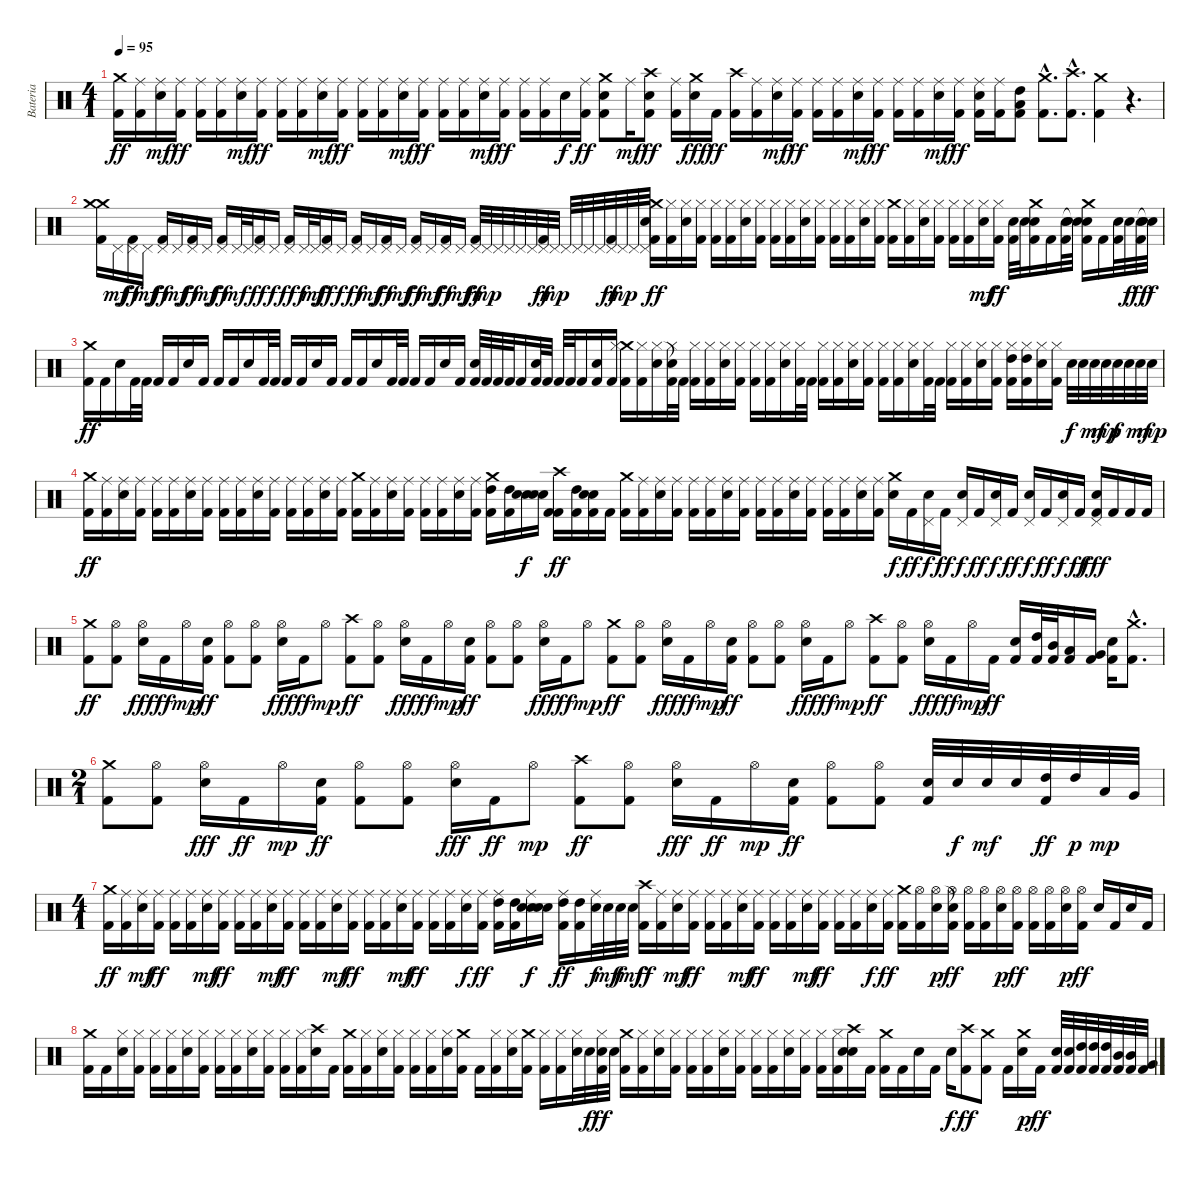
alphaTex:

\track ("Bateria" "Bateria") {instrument percussion}
\staff {score}
\articulation defaults
\ts (4 1)
\tempo 95
\clef neutral
\ks c
("Crash medium (hit)" "Kick (hit) 2").16{dy ff} ("Ride (middle)" "Kick (hit) 2").16 ("Ride (middle)" "Electric Snare (hit)").16{dy mf} ("Ride (middle)" "Kick (hit) 2").16{dy ff} ("Ride (middle)" "Kick (hit) 2").16 ("Ride (middle)" "Kick (hit) 2").16 ("Ride (middle)" "Electric Snare (hit)").16{dy mf} ("Ride (middle)" "Kick (hit) 2").16{dy ff} ("Ride (middle)" "Kick (hit) 2").16 ("Ride (middle)" "Kick (hit) 2").16 ("Ride (middle)" "Electric Snare (hit)").16{dy mf} ("Ride (middle)" "Kick (hit) 2").16{dy ff} ("Ride (middle)" "Kick (hit) 2").16 ("Ride (middle)" "Kick (hit) 2").16 ("Ride (middle)" "Electric Snare (hit)").16{dy mf} ("Ride (middle)" "Kick (hit) 2").16{dy ff} ("Ride (middle)" "Kick (hit) 2").16 ("Ride (middle)" "Kick (hit) 2").16 ("Ride (middle)" "Electric Snare (hit)").16{dy mf} ("Ride (middle)" "Kick (hit) 2").16{dy ff} ("Ride (middle)" "Kick (hit) 2").16 ("Ride (middle)" "Kick (hit) 2").16 "Electric Snare (hit)".16{dy f} ("Ride (middle)" "Kick (hit) 2").16{dy ff} ("Crash medium (hit)" "Electric Snare (hit)" "Kick (hit) 2").8 "Ride (middle)".16{dy mf} ("Crash high (hit)" "Electric Snare (hit)" "Kick (hit) 2").8{dy ff} ("Ride (middle)" "Kick (hit) 2").16 ("Crash medium (hit)" "Electric Snare (hit)").16{dy fff} "Kick (hit) 2".16{dy ff} ("Crash high (hit)" "Kick (hit) 2").16 ("Ride (middle)" "Kick (hit) 2").16 ("Ride (middle)" "Electric Snare (hit)").16{dy mf} ("Ride (middle)" "Kick (hit) 2").16{dy ff} ("Ride (middle)" "Kick (hit) 2").16 ("Ride (middle)" "Kick (hit) 2").16 ("Ride (middle)" "Electric Snare (hit)").16{dy mf} ("Ride (middle)" "Kick (hit) 2").16{dy ff} ("Ride (middle)" "Kick (hit) 2").16 ("Ride (middle)" "Kick (hit) 2").16 ("Ride (middle)" "Electric Snare (hit)").16{dy mf} ("Ride (middle)" "Kick (hit) 2").16{dy ff} ("Ride (middle)" "Electric Snare (hit)" "Kick (hit) 2").16 ("Ride (middle)" "Kick (hit) 2").16 ("Low Tom (hit)" "High Tom (hit)" "Kick (hit) 2").8 ("Crash medium (hit)"{hac} "Kick (hit) 2"{hac}).8{d} ("Crash high (hit)"{hac} "Kick (hit) 2"{hac}).8{d} ("Crash medium (hit)" "Kick (hit) 2").4 r.4{d} |
("Crash medium (hit)" "Crash medium (hit)" "Kick (hit) 2").16 "Pedal Hi-Hat (hit)".16{dy mf} ("Pedal Hi-Hat (hit)" "Kick (hit) 2").16{dy ff} "Pedal Hi-Hat (hit)".16{dy mf} ("Pedal Hi-Hat (hit)" "Kick (hit) 2").16{dy ff} "Pedal Hi-Hat (hit)".16{dy mf} ("Pedal Hi-Hat (hit)" "Kick (hit) 2").16{dy ff} "Pedal Hi-Hat (hit)".16{dy mf} ("Pedal Hi-Hat (hit)" "Kick (hit) 2").16{dy ff} "Pedal Hi-Hat (hit)".32{dy mf} "Pedal Hi-Hat (hit)".32 ("Pedal Hi-Hat (hit)" "Kick (hit) 2").16{dy ff} "Pedal Hi-Hat (hit)".16{dy f} ("Pedal Hi-Hat (hit)" "Kick (hit) 2").16{dy ff} "Pedal Hi-Hat (hit)".32{dy f} "Pedal Hi-Hat (hit)".32{dy mf} ("Pedal Hi-Hat (hit)" "Kick (hit) 2").16{dy ff} "Pedal Hi-Hat (hit)".16{dy f} ("Pedal Hi-Hat (hit)" "Kick (hit) 2").16{dy ff} "Pedal Hi-Hat (hit)".16{dy mf} ("Pedal Hi-Hat (hit)" "Kick (hit) 2").16{dy ff} "Pedal Hi-Hat (hit)".16{dy mf} ("Pedal Hi-Hat (hit)" "Kick (hit) 2").16{dy ff} "Pedal Hi-Hat (hit)".16{dy mf} ("Pedal Hi-Hat (hit)" "Kick (hit) 2").16{dy ff} "Pedal Hi-Hat (hit)".16{dy mf} ("Pedal Hi-Hat (hit)" "Kick (hit) 2").32{dy ff} "Pedal Hi-Hat (hit)".32{dy mp} "Pedal Hi-Hat (hit)".32 "Pedal Hi-Hat (hit)".32 "Pedal Hi-Hat (hit)".32 "Pedal Hi-Hat (hit)".32 ("Pedal Hi-Hat (hit)" "Kick (hit) 2").32{dy ff} "Pedal Hi-Hat (hit)".32{dy mp} "Pedal Hi-Hat (hit)".32 "Pedal Hi-Hat (hit)".32 "Pedal Hi-Hat (hit)".32 "Pedal Hi-Hat (hit)".32 ("Pedal Hi-Hat (hit)" "Kick (hit) 2").32{dy ff} "Pedal Hi-Hat (hit)".32{dy mp} "Pedal Hi-Hat (hit)".32 ("Pedal Hi-Hat (hit)" "Electric Snare (hit)").32 ("Crash medium (hit)" "Kick (hit) 2").16{dy ff} ("Hi-Hat (closed)" "Kick (hit) 2").16 ("Hi-Hat (closed)" "Electric Snare (hit)").16 ("Hi-Hat (closed)" "Kick (hit) 2").16 ("Hi-Hat (closed)" "Kick (hit) 2").16 ("Hi-Hat (closed)" "Kick (hit) 2").16 ("Hi-Hat (closed)" "Electric Snare (hit)").16 ("Hi-Hat (closed)" "Kick (hit) 2").16 ("Hi-Hat (closed)" "Kick (hit) 2").16 ("Hi-Hat (closed)" "Kick (hit) 2").16 ("Hi-Hat (closed)" "Electric Snare (hit)").16 ("Hi-Hat (closed)" "Kick (hit) 2").16 ("Hi-Hat (closed)" "Kick (hit) 2").16 ("Hi-Hat (closed)" "Kick (hit) 2").16 ("Hi-Hat (closed)" "Electric Snare (hit)").16 ("Hi-Hat (closed)" "Kick (hit) 2").16 ("Crash medium (hit)" "Kick (hit) 2").16 ("Hi-Hat (closed)" "Kick (hit) 2").16 ("Hi-Hat (closed)" "Electric Snare (hit)").16 ("Hi-Hat (closed)" "Kick (hit) 2").16 ("Hi-Hat (closed)" "Kick (hit) 2").16 ("Hi-Hat (closed)" "Kick (hit) 2").16 ("Hi-Hat (closed)" "Electric Snare (hit)").16{dy mf} ("Hi-Hat (closed)" "Kick (hit) 2").16{dy ff} ("Electric Snare (hit)" "Kick (hit) 2").32 "Electric Snare (hit)".32 ("Crash medium (hit)" "Electric Snare (hit)" "Kick (hit) 2").16 "Kick (hit) 2".16 ("Electric Snare (hit)" "Kick (hit) 2").32 ("Snare (hit)"{t} "Electric Snare (hit)").32 ("Crash medium (hit)" "Electric Snare (hit)" "Kick (hit) 2").16 "Kick (hit) 2".16 ("Electric Snare (hit)" "Kick (hit) 2").32 "Electric Snare (hit)".32{dy f} ("Electric Snare (hit)" "Kick (hit) 2").32{dy ff} ("Snare (hit)"{t} "Electric Snare (hit)").32{dy f} |
("Crash medium (hit)" "Kick (hit) 2").16{dy ff} "Kick (hit) 2".16 "Electric Snare (hit)".16 "Kick (hit) 2".32 "Kick (hit) 2".32 "Kick (hit) 2".16 "Kick (hit) 2".16 "Electric Snare (hit)".16 "Kick (hit) 2".16 "Kick (hit) 2".16 "Kick (hit) 2".16 "Electric Snare (hit)".16 "Kick (hit) 2".32 "Kick (hit) 2".32 "Kick (hit) 2".16 "Kick (hit) 2".16 "Electric Snare (hit)".16 "Kick (hit) 2".16 "Kick (hit) 2".16 "Kick (hit) 2".16 "Electric Snare (hit)".16 "Kick (hit) 2".32 "Kick (hit) 2".32 "Kick (hit) 2".16 "Kick (hit) 2".16 "Electric Snare (hit)".16 "Kick (hit) 2".16 ("Electric Snare (hit)" "Kick (hit) 2").32 "Kick (hit) 2".32 "Kick (hit) 2".32 "Kick (hit) 2".32 "Kick (hit) 2".16 ("Electric Snare (hit)" "Kick (hit) 2").32 "Kick (hit) 2".32 "Kick (hit) 2".32 "Kick (hit) 2".32 "Kick (hit) 2".16 ("Electric Snare (hit)" "Kick (hit) 2").16 "Kick (hit) 2".16 ("Crash medium (hit)" "Hi-Hat (closed)" "Kick (hit) 2").16 ("Hi-Hat (closed)" "Kick (hit) 2").16 ("Hi-Hat (closed)" "Electric Snare (hit)").16 ("Snare (hit)"{t} "Hi-Hat (closed)" "Kick (hit) 2").32 "Kick (hit) 2".32 ("Hi-Hat (closed)" "Kick (hit) 2").16 ("Hi-Hat (closed)" "Kick (hit) 2").16 ("Hi-Hat (closed)" "Electric Snare (hit)").16 ("Hi-Hat (closed)" "Kick (hit) 2").16 ("Hi-Hat (closed)" "Kick (hit) 2").16 ("Hi-Hat (closed)" "Kick (hit) 2").16 ("Hi-Hat (closed)" "Electric Snare (hit)").16 ("Hi-Hat (closed)" "Kick (hit) 2").32 "Kick (hit) 2".32 ("Hi-Hat (closed)" "Kick (hit) 2").16 ("Hi-Hat (closed)" "Kick (hit) 2").16 ("Hi-Hat (closed)" "Electric Snare (hit)").16 ("Hi-Hat (closed)" "Kick (hit) 2").16 ("Hi-Hat (closed)" "Kick (hit) 2").16 ("Hi-Hat (closed)" "Kick (hit) 2").16 ("Hi-Hat (closed)" "Electric Snare (hit)").16 ("Hi-Hat (closed)" "Kick (hit) 2").32 "Kick (hit) 2".32 ("Hi-Hat (closed)" "Kick (hit) 2").16 ("Hi-Hat (closed)" "Kick (hit) 2").16 ("Hi-Hat (closed)" "Electric Snare (hit)").16 ("Hi-Hat (closed)" "Kick (hit) 2").16 ("Hi-Hat (closed)" "High Tom (hit)" "Kick (hit) 2").16 ("Hi-Hat (closed)" "High Tom (hit)" "Kick (hit) 2").16 ("Hi-Hat (closed)" "Electric Snare (hit)").16 ("Hi-Hat (closed)" "Kick (hit) 2").16 "Electric Snare (hit)".32{dy f} "Electric Snare (hit)".32 "Electric Snare (hit)".32{dy mf} "Electric Snare (hit)".32{dy mp} "Electric Snare (hit)".32{dy f} "Electric Snare (hit)".32 "Electric Snare (hit)".32{dy mf} "Electric Snare (hit)".32{dy mp} |
("Crash medium (hit)" "Kick (hit) 2").16{dy ff} ("Ride (middle)" "Kick (hit) 2").16 ("Ride (middle)" "Electric Snare (hit)").16 ("Ride (middle)" "Kick (hit) 2").16 ("Ride (middle)" "Kick (hit) 2").16 ("Ride (middle)" "Kick (hit) 2").16 ("Ride (middle)" "Electric Snare (hit)").16 ("Ride (middle)" "Kick (hit) 2").16 ("Ride (middle)" "Kick (hit) 2").16 ("Ride (middle)" "Kick (hit) 2").16 ("Ride (middle)" "Electric Snare (hit)").16 ("Ride (middle)" "Kick (hit) 2").16 ("Ride (middle)" "Kick (hit) 2").16 ("Ride (middle)" "Kick (hit) 2").16 ("Ride (middle)" "Electric Snare (hit)").16 ("Ride (middle)" "Kick (hit) 2").16 ("Crash medium (hit)" "Kick (hit) 2").16 ("Ride (middle)" "Kick (hit) 2").16 ("Ride (middle)" "Electric Snare (hit)").16 ("Ride (middle)" "Kick (hit) 2").16 ("Ride (middle)" "Kick (hit) 2").16 ("Ride (middle)" "Kick (hit) 2").16 ("Ride (middle)" "Electric Snare (hit)").16 ("Ride (middle)" "Kick (hit) 2").16 ("Crash medium (hit)" "High Tom (hit)" "Kick (hit) 2").16 ("High Tom (hit)" "Kick (hit) 2").16 ("Snare (hit) 2" "Electric Snare (hit)").16{dy f} ("Snare (hit) 2" "Electric Snare (hit)").16 ("Crash high (hit)" "Kick (hit) 2" "Kick (hit) 2").16{dy ff} ("High Tom (hit)" "Kick (hit) 2").16 ("Snare (hit) 2" "Electric Snare (hit)" "Kick (hit) 2").16 "Kick (hit) 2".16 ("Crash medium (hit)" "Kick (hit) 2").16 ("Ride (middle)" "Kick (hit) 2").16 ("Ride (middle)" "Electric Snare (hit)").16 ("Ride (middle)" "Kick (hit) 2").16 ("Ride (middle)" "Kick (hit) 2").16 ("Ride (middle)" "Kick (hit) 2").16 ("Ride (middle)" "Electric Snare (hit)").16 ("Ride (middle)" "Kick (hit) 2").16 ("Ride (middle)" "Kick (hit) 2").16 ("Ride (middle)" "Kick (hit) 2").16 ("Ride (middle)" "Electric Snare (hit)").16 ("Ride (middle)" "Kick (hit) 2").16 ("Ride (middle)" "Kick (hit) 2").16 ("Ride (middle)" "Kick (hit) 2").16 ("Ride (middle)" "Electric Snare (hit)").16 ("Ride (middle)" "Kick (hit) 2").16 ("Crash medium (hit)" "Electric Snare (hit)").16{dy f} "Kick (hit) 2".16{dy ff} ("Pedal Hi-Hat (hit)" "Electric Snare (hit)").16{dy f} "Kick (hit) 2".16{dy ff} ("Pedal Hi-Hat (hit)" "Electric Snare (hit)").16{dy f} "Kick (hit) 2".16{dy ff} ("Pedal Hi-Hat (hit)" "Electric Snare (hit)").16{dy f} "Kick (hit) 2".16{dy ff} ("Pedal Hi-Hat (hit)" "Electric Snare (hit)").16{dy f} "Kick (hit) 2".16{dy ff} ("Pedal Hi-Hat (hit)" "Electric Snare (hit)").16{dy f} "Kick (hit) 2".16{dy ff} ("Pedal Hi-Hat (hit)" "Electric Snare (hit)" "Kick (hit) 2").16{dy fff} "Kick (hit) 2".16 "Kick (hit) 2".16 "Kick (hit) 2".16 |
("Crash medium (hit)" "Kick (hit) 2").8{dy ff} ("Hi-Hat (open)" "Kick (hit) 2").8 ("Hi-Hat (open)" "Electric Snare (hit)").16{dy fff} "Kick (hit) 2".16{dy ff} "Hi-Hat (open)".16{dy mp} ("Electric Snare (hit)" "Kick (hit) 2").16{dy ff} ("Hi-Hat (open)" "Kick (hit) 2").8 ("Hi-Hat (open)" "Kick (hit) 2").8 ("Hi-Hat (open)" "Electric Snare (hit)").16{dy fff} "Kick (hit) 2".16{dy ff} "Hi-Hat (open)".8{dy mp} ("Crash high (hit)" "Kick (hit) 2").8{dy ff} ("Hi-Hat (open)" "Kick (hit) 2").8 ("Hi-Hat (open)" "Electric Snare (hit)").16{dy fff} "Kick (hit) 2".16{dy ff} "Hi-Hat (open)".16{dy mp} ("Electric Snare (hit)" "Kick (hit) 2").16{dy ff} ("Hi-Hat (open)" "Kick (hit) 2").8 ("Hi-Hat (open)" "Kick (hit) 2").8 ("Hi-Hat (open)" "Electric Snare (hit)").16{dy fff} "Kick (hit) 2".16{dy ff} "Hi-Hat (open)".8{dy mp} ("Crash medium (hit)" "Kick (hit) 2").8{dy ff} ("Hi-Hat (open)" "Kick (hit) 2").8 ("Hi-Hat (open)" "Electric Snare (hit)").16{dy fff} "Kick (hit) 2".16{dy ff} "Hi-Hat (open)".16{dy mp} ("Electric Snare (hit)" "Kick (hit) 2").16{dy ff} ("Hi-Hat (open)" "Kick (hit) 2").8 ("Hi-Hat (open)" "Kick (hit) 2").8 ("Hi-Hat (open)" "Electric Snare (hit)").16{dy fff} "Kick (hit) 2".16{dy ff} "Hi-Hat (open)".8{dy mp} ("Crash high (hit)" "Kick (hit) 2").8{dy ff} ("Hi-Hat (open)" "Kick (hit) 2").8 ("Hi-Hat (open)" "Electric Snare (hit)").16{dy fff} "Kick (hit) 2".16{dy ff} "Hi-Hat (open)".16{dy mp} "Kick (hit) 2".16{dy ff} ("Electric Snare (hit)" "Kick (hit) 2").16 ("High Tom (hit)" "Kick (hit) 2").32 ("Mid Tom (hit)" "Kick (hit) 2").32 ("Low Tom (hit)" "Kick (hit) 2").16 ("Very Low Tom (hit)" "Kick (hit) 2").16 ("Electric Snare (hit)" "Kick (hit) 2").16 ("Crash medium (hit)"{hac} "Kick (hit) 2"{hac}).8{d} |
\ts (2 1)
("Crash medium (hit)" "Kick (hit) 2").8 ("Hi-Hat (open)" "Kick (hit) 2").8 ("Hi-Hat (open)" "Electric Snare (hit)").16{dy fff} "Kick (hit) 2".16{dy ff} "Hi-Hat (open)".16{dy mp} ("Electric Snare (hit)" "Kick (hit) 2").16{dy ff} ("Hi-Hat (open)" "Kick (hit) 2").8 ("Hi-Hat (open)" "Kick (hit) 2").8 ("Hi-Hat (open)" "Electric Snare (hit)").16{dy fff} "Kick (hit) 2".16{dy ff} "Hi-Hat (open)".8{dy mp} ("Crash high (hit)" "Kick (hit) 2").8{dy ff} ("Hi-Hat (open)" "Kick (hit) 2").8 ("Hi-Hat (open)" "Electric Snare (hit)").16{dy fff} "Kick (hit) 2".16{dy ff} "Hi-Hat (open)".16{dy mp} ("Electric Snare (hit)" "Kick (hit) 2").16{dy ff} ("Hi-Hat (open)" "Kick (hit) 2").8 ("Hi-Hat (open)" "Kick (hit) 2").8 ("Electric Snare (hit)" "Kick (hit) 2").32 "Electric Snare (hit)".32{dy f} "Electric Snare (hit)".32{dy mf} "Electric Snare (hit)".32 ("High Tom (hit)" "Kick (hit) 2").32{dy ff} "High Tom (hit)".32{dy p} "Low Tom (hit)".32{dy mp} "Very Low Tom (hit)".32 |
\ts (4 1)
("Crash medium (hit)" "Kick (hit) 2").16{dy ff} ("Ride (middle)" "Kick (hit) 2").16 ("Ride (middle)" "Electric Snare (hit)").16{dy mf} ("Ride (middle)" "Kick (hit) 2").16{dy ff} ("Ride (middle)" "Kick (hit) 2").16 ("Ride (middle)" "Kick (hit) 2").16 ("Ride (middle)" "Electric Snare (hit)").16{dy mf} ("Ride (middle)" "Kick (hit) 2").16{dy ff} ("Ride (middle)" "Kick (hit) 2").16 ("Ride (middle)" "Kick (hit) 2").16 ("Ride (middle)" "Electric Snare (hit)").16{dy mf} ("Ride (middle)" "Kick (hit) 2").16{dy ff} ("Ride (middle)" "Kick (hit) 2").16 ("Ride (middle)" "Kick (hit) 2").16 ("Ride (middle)" "Electric Snare (hit)").16{dy mf} ("Ride (middle)" "Kick (hit) 2").16{dy ff} ("Ride (middle)" "Kick (hit) 2").16 ("Ride (middle)" "Kick (hit) 2").16 ("Ride (middle)" "Electric Snare (hit)").16{dy mf} ("Ride (middle)" "Kick (hit) 2").16{dy ff} ("Ride (middle)" "Kick (hit) 2").16 ("Ride (middle)" "Kick (hit) 2").16 ("Ride (middle)" "Electric Snare (hit)").16{dy f} ("Ride (middle)" "Kick (hit) 2").16{dy ff} ("Ride (middle)" "High Tom (hit)" "Kick (hit) 2").16 ("High Tom (hit)" "Kick (hit) 2").16 ("Ride (middle)" "Snare (hit) 2" "Electric Snare (hit)").16{dy f} ("Snare (hit) 2" "Electric Snare (hit)").16 ("Ride (middle)" "High Tom (hit)" "Kick (hit) 2").16{dy ff} ("High Tom (hit)" "Kick (hit) 2").16 ("Ride (middle)" "Electric Snare (hit)").32{dy f} "Electric Snare (hit)".32{dy mf} "Electric Snare (hit)".32{dy f} "Electric Snare (hit)".32{dy mf} ("Crash high (hit)" "Kick (hit) 2").16{dy ff} ("Ride (middle)" "Kick (hit) 2").16 ("Ride (middle)" "Electric Snare (hit)").16{dy mf} ("Ride (middle)" "Kick (hit) 2").16{dy ff} ("Ride (middle)" "Kick (hit) 2").16 ("Ride (middle)" "Kick (hit) 2").16 ("Ride (middle)" "Electric Snare (hit)").16{dy mf} ("Ride (middle)" "Kick (hit) 2").16{dy ff} ("Ride (middle)" "Kick (hit) 2").16 ("Ride (middle)" "Kick (hit) 2").16 ("Ride (middle)" "Electric Snare (hit)").16{dy mf} ("Ride (middle)" "Kick (hit) 2").16{dy ff} ("Ride (middle)" "Kick (hit) 2").16 ("Ride (middle)" "Kick (hit) 2").16 ("Ride (middle)" "Electric Snare (hit)").16{dy f} ("Ride (middle)" "Kick (hit) 2").16{dy ff} ("Crash medium (hit)" "Kick (hit) 2").16 ("Hi-Hat (open)" "Kick (hit) 2").16 ("Hi-Hat (open)" "Electric Snare (hit)").16{dy p} ("Snare (hit)"{t} "Hi-Hat (open)" "Kick (hit) 2").16{dy ff} ("Hi-Hat (open)" "Kick (hit) 2").16 ("Hi-Hat (open)" "Kick (hit) 2").16 ("Hi-Hat (open)" "Electric Snare (hit)").16{dy p} ("Hi-Hat (open)" "Kick (hit) 2").16{dy ff} ("Hi-Hat (open)" "Kick (hit) 2").16 ("Hi-Hat (open)" "Kick (hit) 2").16 ("Hi-Hat (open)" "Electric Snare (hit)").16{dy p} ("Hi-Hat (open)" "Kick (hit) 2").16{dy ff} "Electric Snare (hit)".16 "Kick (hit) 2".16 "Electric Snare (hit)".16 "Kick (hit) 2".16 |
("Crash medium (hit)" "Kick (hit) 2").16 "Kick (hit) 2".16 ("Hi-Hat (closed)" "Electric Snare (hit)").16 ("Hi-Hat (closed)" "Kick (hit) 2").16 ("Hi-Hat (closed)" "Kick (hit) 2").16 ("Hi-Hat (closed)" "Kick (hit) 2").16 ("Hi-Hat (closed)" "Electric Snare (hit)").16 ("Hi-Hat (closed)" "Kick (hit) 2").16 ("Hi-Hat (closed)" "Kick (hit) 2").16 ("Hi-Hat (closed)" "Kick (hit) 2").16 ("Hi-Hat (closed)" "Electric Snare (hit)").16 ("Hi-Hat (closed)" "Kick (hit) 2").16 ("Hi-Hat (closed)" "Kick (hit) 2").16 ("Hi-Hat (closed)" "Kick (hit) 2").16 ("Crash high (hit)" "Electric Snare (hit)").16 "Kick (hit) 2".16 ("Crash medium (hit)" "Kick (hit) 2").16 ("Hi-Hat (closed)" "Kick (hit) 2").16 ("Hi-Hat (closed)" "Electric Snare (hit)").16 ("Hi-Hat (closed)" "Kick (hit) 2").16 ("Hi-Hat (closed)" "Kick (hit) 2").16 ("Hi-Hat (closed)" "Kick (hit) 2").16 ("Hi-Hat (closed)" "Electric Snare (hit)").16 ("Crash medium (hit)" "Kick (hit) 2").16 "Kick (hit) 2".16 ("Hi-Hat (closed)" "Kick (hit) 2").16 ("Hi-Hat (closed)" "Electric Snare (hit)").16 ("Crash medium (hit)" "Kick (hit) 2").16 ("Hi-Hat (closed)" "Kick (hit) 2").16 ("Hi-Hat (closed)" "Kick (hit) 2").16 ("Hi-Hat (closed)" "Electric Snare (hit)").32 "Electric Snare (hit)".32{dy f} ("Hi-Hat (closed)" "Electric Snare (hit)" "Kick (hit) 2").32{dy ff} "Electric Snare (hit)".32 ("Crash medium (hit)" "Kick (hit) 2").16 ("Hi-Hat (closed)" "Kick (hit) 2").16 ("Hi-Hat (closed)" "Electric Snare (hit)").16 ("Hi-Hat (closed)" "Kick (hit) 2").16 ("Hi-Hat (closed)" "Kick (hit) 2").16 ("Hi-Hat (closed)" "Kick (hit) 2").16 ("Hi-Hat (closed)" "Electric Snare (hit)").16 ("Hi-Hat (closed)" "Kick (hit) 2").16 ("Hi-Hat (closed)" "Kick (hit) 2").16 ("Hi-Hat (closed)" "Kick (hit) 2").16 ("Hi-Hat (closed)" "Electric Snare (hit)").16 ("Hi-Hat (closed)" "Kick (hit) 2").16 ("Hi-Hat (closed)" "Kick (hit) 2").16 ("Hi-Hat (closed)" "Kick (hit) 2").16 ("Crash high (hit)" "Electric Snare (hit)" "Electric Snare (hit)").16 "Kick (hit) 2".16 ("Crash medium (hit)" "Kick (hit) 2").16 "Kick (hit) 2".16 "Electric Snare (hit)".16 "Kick (hit) 2".16 "Electric Snare (hit)".16{dy f} ("Crash high (hit)" "Kick (hit) 2").8{dy ff} ("Crash medium (hit)" "Kick (hit) 2").8 "Kick (hit) 2".16 ("Crash medium (hit)" "Electric Snare (hit)").16{dy p} "Kick (hit) 2".16{dy ff} ("Electric Snare (hit)" "Kick (hit) 2").32 ("Electric Snare (hit)" "Kick (hit) 2").32 ("High Tom (hit)" "Kick (hit) 2").32 ("High Tom (hit)" "Kick (hit) 2").32 ("High Tom (hit)" "Kick (hit) 2").32 ("Mid Tom (hit)" "Kick (hit) 2").32 ("Mid Tom (hit)" "Kick (hit) 2").32 ("Very Low Tom (hit)" "Kick (hit) 2").32
